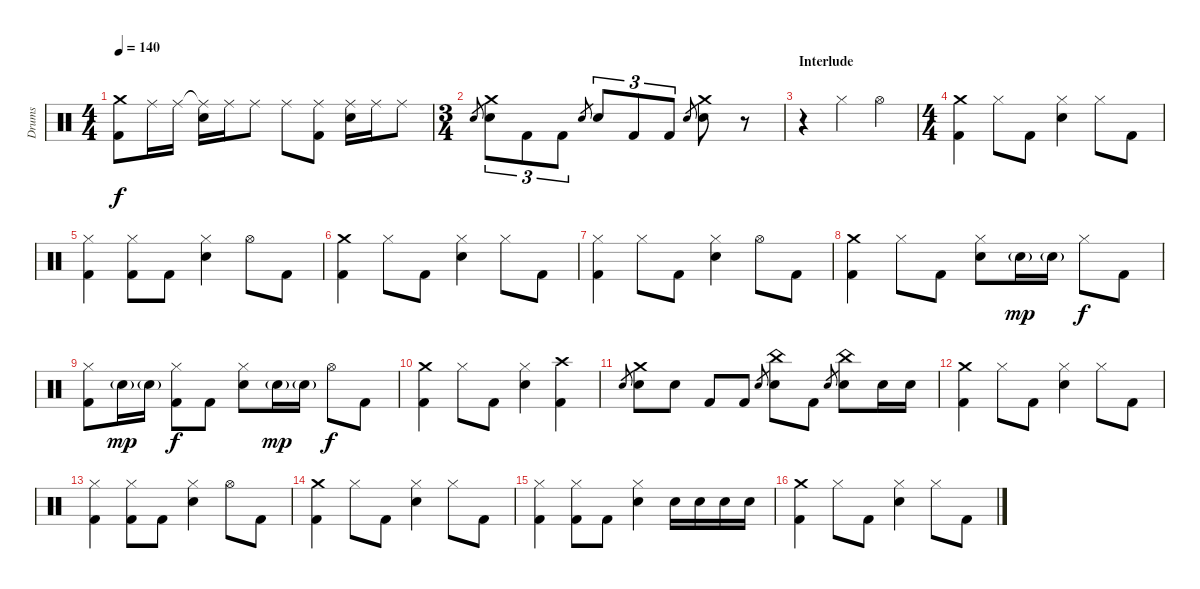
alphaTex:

\track ("Drums" "Drums") {instrument percussion}
\staff {score}
\articulation defaults
\ts (4 4)
\tempo 140
\clef neutral
\ks c
("Crash medium (hit)" "Kick (hit) 2").8{dy f} "Ride (middle)".16 "Ride (middle)".16 ("Ride (middle)"{t} "Snare (hit) 2").16 "Ride (middle)".16 "Ride (middle)".8 "Ride (middle)".8 ("Ride (middle)" "Kick (hit) 2").8 ("Ride (middle)" "Snare (hit) 2").16 "Ride (middle)".16 "Ride (middle)".8 |
\ts (3 4)
"Snare (hit) 2".8{gr} ("Crash medium (hit)" "Snare (hit) 2").8{tu (3 2)} "Kick (hit) 2".8{tu (3 2)} "Kick (hit) 2".8{tu (3 2)} "Snare (hit) 2".8{gr} "Snare (hit) 2".8{tu (3 2)} "Kick (hit) 2".8{tu (3 2)} "Kick (hit) 2".8{tu (3 2)} "Snare (hit) 2".8{gr} ("Crash medium (hit)" "Snare (hit) 2").8 r.8 |
\section ("" "Interlude")
r.4 "Hi-Hat (closed)".4 "Hi-Hat (open)".4 |
\ts (4 4)
("Crash medium (hit)" "Kick (hit) 2").4 "Hi-Hat (closed)".8 "Kick (hit) 2".8 ("Hi-Hat (closed)" "Snare (hit) 2").4 "Hi-Hat (closed)".8 "Kick (hit) 2".8 |
("Hi-Hat (closed)" "Kick (hit) 2").4 ("Hi-Hat (closed)" "Kick (hit) 2").8 "Kick (hit) 2".8 ("Hi-Hat (closed)" "Snare (hit) 2").4 "Hi-Hat (open)".8 "Kick (hit) 2".8 |
("Crash medium (hit)" "Kick (hit) 2").4 "Hi-Hat (closed)".8 "Kick (hit) 2".8 ("Hi-Hat (closed)" "Snare (hit) 2").4 "Hi-Hat (closed)".8 "Kick (hit) 2".8 |
("Hi-Hat (closed)" "Kick (hit) 2").4 "Hi-Hat (closed)".8 "Kick (hit) 2".8 ("Hi-Hat (closed)" "Snare (hit) 2").4 "Hi-Hat (open)".8 "Kick (hit) 2".8 |
("Crash medium (hit)" "Kick (hit) 2").4 "Hi-Hat (closed)".8 "Kick (hit) 2".8 ("Hi-Hat (closed)" "Snare (hit) 2").8 "Snare (hit) 2"{g}.16{dy mp} "Snare (hit) 2"{g}.16 "Hi-Hat (closed)".8{dy f} "Kick (hit) 2".8 |
("Hi-Hat (closed)" "Kick (hit) 2").8 "Snare (hit) 2"{g}.16{dy mp} "Snare (hit) 2"{g}.16 ("Hi-Hat (closed)" "Kick (hit) 2").8{dy f} "Kick (hit) 2".8 ("Hi-Hat (closed)" "Snare (hit) 2").8 "Snare (hit) 2"{g}.16{dy mp} "Snare (hit) 2"{g}.16 "Hi-Hat (open)".8{dy f} "Kick (hit) 2".8 |
("Crash medium (hit)" "Kick (hit) 2").4 "Hi-Hat (closed)".8 "Kick (hit) 2".8 ("Hi-Hat (closed)" "Snare (hit) 2").4 ("Crash high (hit)" "Kick (hit) 2").4 |
"Snare (hit) 2".8{gr} ("Crash medium (hit)" "Snare (hit) 2").8 "Snare (hit) 2".8 "Kick (hit) 2".8 "Kick (hit) 2".8 "Snare (hit) 2".8{gr} ("China (hit)" "Snare (hit) 2").8 "Kick (hit) 2".8 "Snare (hit) 2".8{gr} ("China (hit)" "Snare (hit) 2").8 "Snare (hit) 2".16 "Snare (hit) 2".16 |
("Crash medium (hit)" "Kick (hit) 2").4 "Hi-Hat (closed)".8 "Kick (hit) 2".8 ("Hi-Hat (closed)" "Snare (hit) 2").4 "Hi-Hat (closed)".8 "Kick (hit) 2".8 |
("Hi-Hat (closed)" "Kick (hit) 2").4 ("Hi-Hat (closed)" "Kick (hit) 2").8 "Kick (hit) 2".8 ("Hi-Hat (closed)" "Snare (hit) 2").4 "Hi-Hat (open)".8 "Kick (hit) 2".8 |
("Crash medium (hit)" "Kick (hit) 2").4 "Hi-Hat (closed)".8 "Kick (hit) 2".8 ("Hi-Hat (closed)" "Snare (hit) 2").4 "Hi-Hat (closed)".8 "Kick (hit) 2".8 |
("Hi-Hat (closed)" "Kick (hit) 2").4 ("Hi-Hat (closed)" "Kick (hit) 2").8 "Kick (hit) 2".8 ("Hi-Hat (closed)" "Snare (hit) 2").4 "Snare (hit) 2".16 "Snare (hit) 2".16 "Snare (hit) 2".16 "Snare (hit) 2".16 |
("Crash medium (hit)" "Kick (hit) 2").4 "Hi-Hat (closed)".8 "Kick (hit) 2".8 ("Hi-Hat (closed)" "Snare (hit) 2").4 "Hi-Hat (closed)".8 "Kick (hit) 2".8
